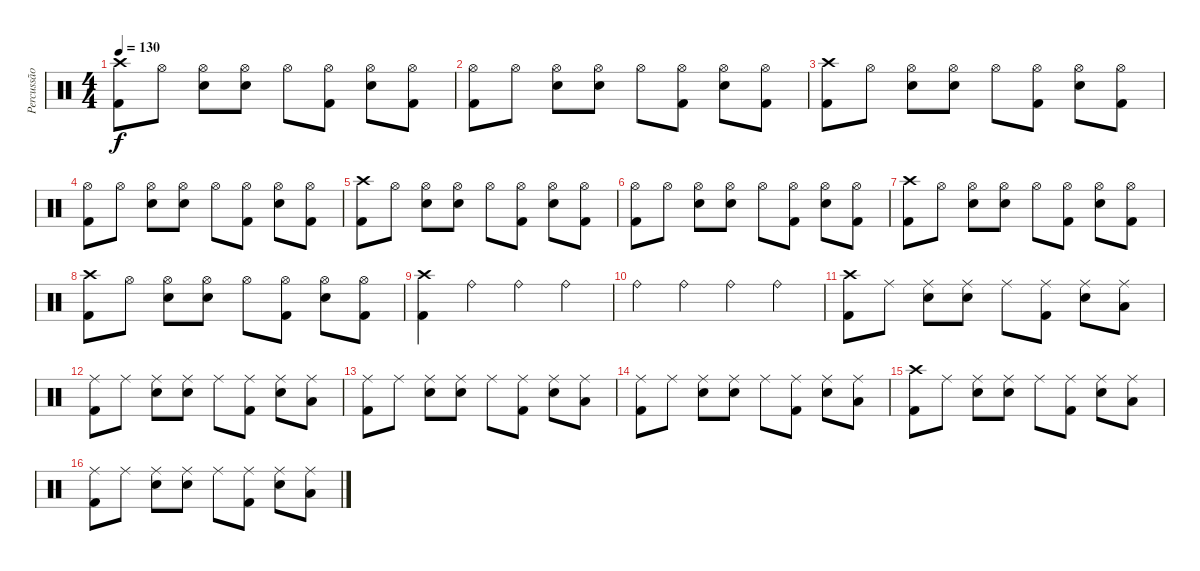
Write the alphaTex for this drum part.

\track ("Percussão" "Percussão") {instrument percussion}
\staff {score}
\articulation defaults
\ts (4 4)
\tempo 130
\clef neutral
\ks c
("Crash high (hit)" "Kick (hit) 2").8{dy f} "Hi-Hat (open)".8 ("Hi-Hat (open)" "Electric Snare (hit)").8 ("Hi-Hat (open)" "Electric Snare (hit)").8 "Hi-Hat (open)".8 ("Hi-Hat (open)" "Kick (hit) 2").8 ("Hi-Hat (open)" "Electric Snare (hit)").8 ("Hi-Hat (open)" "Kick (hit) 2").8 |
("Hi-Hat (open)" "Kick (hit) 2").8 "Hi-Hat (open)".8 ("Hi-Hat (open)" "Electric Snare (hit)").8 ("Hi-Hat (open)" "Electric Snare (hit)").8 "Hi-Hat (open)".8 ("Hi-Hat (open)" "Kick (hit) 2").8 ("Hi-Hat (open)" "Electric Snare (hit)").8 ("Hi-Hat (open)" "Kick (hit) 2").8 |
("Crash high (hit)" "Kick (hit) 2").8 "Hi-Hat (open)".8 ("Hi-Hat (open)" "Electric Snare (hit)").8 ("Hi-Hat (open)" "Electric Snare (hit)").8 "Hi-Hat (open)".8 ("Hi-Hat (open)" "Kick (hit) 2").8 ("Hi-Hat (open)" "Electric Snare (hit)").8 ("Hi-Hat (open)" "Kick (hit) 2").8 |
("Hi-Hat (open)" "Kick (hit) 2").8 "Hi-Hat (open)".8 ("Hi-Hat (open)" "Electric Snare (hit)").8 ("Hi-Hat (open)" "Electric Snare (hit)").8 "Hi-Hat (open)".8 ("Hi-Hat (open)" "Kick (hit) 2").8 ("Hi-Hat (open)" "Electric Snare (hit)").8 ("Hi-Hat (open)" "Kick (hit) 2").8 |
("Crash high (hit)" "Kick (hit) 2").8 "Hi-Hat (open)".8 ("Hi-Hat (open)" "Electric Snare (hit)").8 ("Hi-Hat (open)" "Electric Snare (hit)").8 "Hi-Hat (open)".8 ("Hi-Hat (open)" "Kick (hit) 2").8 ("Hi-Hat (open)" "Electric Snare (hit)").8 ("Hi-Hat (open)" "Kick (hit) 2").8 |
("Hi-Hat (open)" "Kick (hit) 2").8 "Hi-Hat (open)".8 ("Hi-Hat (open)" "Electric Snare (hit)").8 ("Hi-Hat (open)" "Electric Snare (hit)").8 "Hi-Hat (open)".8 ("Hi-Hat (open)" "Kick (hit) 2").8 ("Hi-Hat (open)" "Electric Snare (hit)").8 ("Hi-Hat (open)" "Kick (hit) 2").8 |
("Crash high (hit)" "Kick (hit) 2").8 "Hi-Hat (open)".8 ("Hi-Hat (open)" "Electric Snare (hit)").8 ("Hi-Hat (open)" "Electric Snare (hit)").8 "Hi-Hat (open)".8 ("Hi-Hat (open)" "Kick (hit) 2").8 ("Hi-Hat (open)" "Electric Snare (hit)").8 ("Hi-Hat (open)" "Kick (hit) 2").8 |
("Crash high (hit)" "Kick (hit) 2").8 "Hi-Hat (open)".8 ("Hi-Hat (open)" "Electric Snare (hit)").8 ("Hi-Hat (open)" "Electric Snare (hit)").8 "Hi-Hat (open)".8 ("Hi-Hat (open)" "Kick (hit) 2").8 ("Hi-Hat (open)" "Electric Snare (hit)").8 ("Hi-Hat (open)" "Kick (hit) 2").8 |
("Crash high (hit)" "Kick (hit) 2").4 "Ride (bell)".4 "Ride (bell)".4 "Ride (bell)".4 |
"Ride (bell)".4 "Ride (bell)".4 "Ride (bell)".4 "Ride (bell)".4 |
("Crash high (hit)" "Kick (hit) 2").8 "Ride (middle)".8 ("Ride (middle)" "Electric Snare (hit)").8 ("Ride (middle)" "Electric Snare (hit)").8 "Ride (middle)".8 ("Ride (middle)" "Kick (hit) 2").8 ("Ride (middle)" "Electric Snare (hit)").8 ("Ride (middle)" "Low Tom (hit)").8 |
("Ride (middle)" "Kick (hit) 2").8 "Ride (middle)".8 ("Ride (middle)" "Electric Snare (hit)").8 ("Ride (middle)" "Electric Snare (hit)").8 "Ride (middle)".8 ("Ride (middle)" "Kick (hit) 2").8 ("Ride (middle)" "Electric Snare (hit)").8 ("Ride (middle)" "Low Tom (hit)").8 |
("Ride (middle)" "Kick (hit) 2").8 "Ride (middle)".8 ("Ride (middle)" "Electric Snare (hit)").8 ("Ride (middle)" "Electric Snare (hit)").8 "Ride (middle)".8 ("Ride (middle)" "Kick (hit) 2").8 ("Ride (middle)" "Electric Snare (hit)").8 ("Ride (middle)" "Low Tom (hit)").8 |
("Ride (middle)" "Kick (hit) 2").8 "Ride (middle)".8 ("Ride (middle)" "Electric Snare (hit)").8 ("Ride (middle)" "Electric Snare (hit)").8 "Ride (middle)".8 ("Ride (middle)" "Kick (hit) 2").8 ("Ride (middle)" "Electric Snare (hit)").8 ("Ride (middle)" "Low Tom (hit)").8 |
("Crash high (hit)" "Kick (hit) 2").8 "Ride (middle)".8 ("Ride (middle)" "Electric Snare (hit)").8 ("Ride (middle)" "Electric Snare (hit)").8 "Ride (middle)".8 ("Ride (middle)" "Kick (hit) 2").8 ("Ride (middle)" "Electric Snare (hit)").8 ("Ride (middle)" "Low Tom (hit)").8 |
("Ride (middle)" "Kick (hit) 2").8 "Ride (middle)".8 ("Ride (middle)" "Electric Snare (hit)").8 ("Ride (middle)" "Electric Snare (hit)").8 "Ride (middle)".8 ("Ride (middle)" "Kick (hit) 2").8 ("Ride (middle)" "Electric Snare (hit)").8 ("Ride (middle)" "Low Tom (hit)").8
